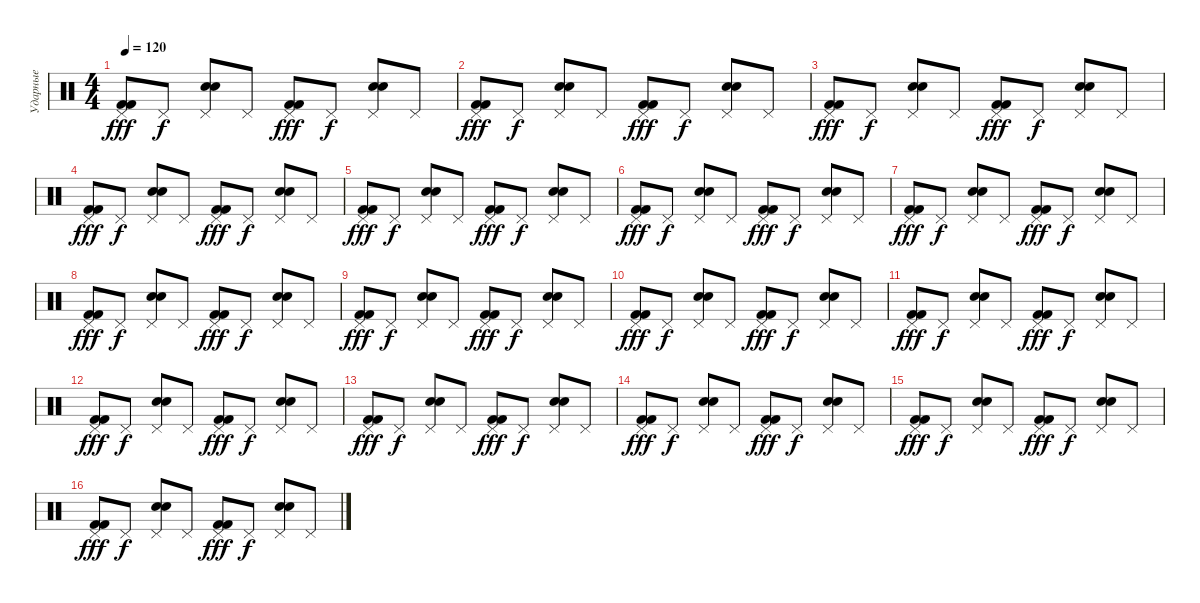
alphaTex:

\track ("Ударные" "Ударные") {instrument percussion}
\staff {score}
\articulation defaults
\ts (4 4)
\tempo 120
\clef neutral
\ks c
("Kick (hit) 2" "Kick (hit) 2" "Pedal Hi-Hat (hit)").8{dy fff} "Pedal Hi-Hat (hit)".8{dy f} ("Electric Snare (hit)" "Electric Snare (hit)" "Pedal Hi-Hat (hit)").8 "Pedal Hi-Hat (hit)".8 ("Kick (hit) 2" "Kick (hit) 2" "Pedal Hi-Hat (hit)").8{dy fff} "Pedal Hi-Hat (hit)".8{dy f} ("Electric Snare (hit)" "Electric Snare (hit)" "Pedal Hi-Hat (hit)").8 "Pedal Hi-Hat (hit)".8 |
("Kick (hit) 2" "Kick (hit) 2" "Pedal Hi-Hat (hit)").8{dy fff} "Pedal Hi-Hat (hit)".8{dy f} ("Electric Snare (hit)" "Electric Snare (hit)" "Pedal Hi-Hat (hit)").8 "Pedal Hi-Hat (hit)".8 ("Kick (hit) 2" "Kick (hit) 2" "Pedal Hi-Hat (hit)").8{dy fff} "Pedal Hi-Hat (hit)".8{dy f} ("Electric Snare (hit)" "Electric Snare (hit)" "Pedal Hi-Hat (hit)").8 "Pedal Hi-Hat (hit)".8 |
("Kick (hit) 2" "Kick (hit) 2" "Pedal Hi-Hat (hit)").8{dy fff} "Pedal Hi-Hat (hit)".8{dy f} ("Electric Snare (hit)" "Electric Snare (hit)" "Pedal Hi-Hat (hit)").8 "Pedal Hi-Hat (hit)".8 ("Kick (hit) 2" "Kick (hit) 2" "Pedal Hi-Hat (hit)").8{dy fff} "Pedal Hi-Hat (hit)".8{dy f} ("Electric Snare (hit)" "Electric Snare (hit)" "Pedal Hi-Hat (hit)").8 "Pedal Hi-Hat (hit)".8 |
("Kick (hit) 2" "Kick (hit) 2" "Pedal Hi-Hat (hit)").8{dy fff} "Pedal Hi-Hat (hit)".8{dy f} ("Electric Snare (hit)" "Electric Snare (hit)" "Pedal Hi-Hat (hit)").8 "Pedal Hi-Hat (hit)".8 ("Kick (hit) 2" "Kick (hit) 2" "Pedal Hi-Hat (hit)").8{dy fff} "Pedal Hi-Hat (hit)".8{dy f} ("Electric Snare (hit)" "Electric Snare (hit)" "Pedal Hi-Hat (hit)").8 "Pedal Hi-Hat (hit)".8 |
("Kick (hit) 2" "Kick (hit) 2" "Pedal Hi-Hat (hit)").8{dy fff} "Pedal Hi-Hat (hit)".8{dy f} ("Electric Snare (hit)" "Electric Snare (hit)" "Pedal Hi-Hat (hit)").8 "Pedal Hi-Hat (hit)".8 ("Kick (hit) 2" "Kick (hit) 2" "Pedal Hi-Hat (hit)").8{dy fff} "Pedal Hi-Hat (hit)".8{dy f} ("Electric Snare (hit)" "Electric Snare (hit)" "Pedal Hi-Hat (hit)").8 "Pedal Hi-Hat (hit)".8 |
("Kick (hit) 2" "Kick (hit) 2" "Pedal Hi-Hat (hit)").8{dy fff} "Pedal Hi-Hat (hit)".8{dy f} ("Electric Snare (hit)" "Electric Snare (hit)" "Pedal Hi-Hat (hit)").8 "Pedal Hi-Hat (hit)".8 ("Kick (hit) 2" "Kick (hit) 2" "Pedal Hi-Hat (hit)").8{dy fff} "Pedal Hi-Hat (hit)".8{dy f} ("Electric Snare (hit)" "Electric Snare (hit)" "Pedal Hi-Hat (hit)").8 "Pedal Hi-Hat (hit)".8 |
("Kick (hit) 2" "Kick (hit) 2" "Pedal Hi-Hat (hit)").8{dy fff} "Pedal Hi-Hat (hit)".8{dy f} ("Electric Snare (hit)" "Electric Snare (hit)" "Pedal Hi-Hat (hit)").8 "Pedal Hi-Hat (hit)".8 ("Kick (hit) 2" "Kick (hit) 2" "Pedal Hi-Hat (hit)").8{dy fff} "Pedal Hi-Hat (hit)".8{dy f} ("Electric Snare (hit)" "Electric Snare (hit)" "Pedal Hi-Hat (hit)").8 "Pedal Hi-Hat (hit)".8 |
("Kick (hit) 2" "Kick (hit) 2" "Pedal Hi-Hat (hit)").8{dy fff} "Pedal Hi-Hat (hit)".8{dy f} ("Electric Snare (hit)" "Electric Snare (hit)" "Pedal Hi-Hat (hit)").8 "Pedal Hi-Hat (hit)".8 ("Kick (hit) 2" "Kick (hit) 2" "Pedal Hi-Hat (hit)").8{dy fff} "Pedal Hi-Hat (hit)".8{dy f} ("Electric Snare (hit)" "Electric Snare (hit)" "Pedal Hi-Hat (hit)").8 "Pedal Hi-Hat (hit)".8 |
("Kick (hit) 2" "Kick (hit) 2" "Pedal Hi-Hat (hit)").8{dy fff} "Pedal Hi-Hat (hit)".8{dy f} ("Electric Snare (hit)" "Electric Snare (hit)" "Pedal Hi-Hat (hit)").8 "Pedal Hi-Hat (hit)".8 ("Kick (hit) 2" "Kick (hit) 2" "Pedal Hi-Hat (hit)").8{dy fff} "Pedal Hi-Hat (hit)".8{dy f} ("Electric Snare (hit)" "Electric Snare (hit)" "Pedal Hi-Hat (hit)").8 "Pedal Hi-Hat (hit)".8 |
("Kick (hit) 2" "Kick (hit) 2" "Pedal Hi-Hat (hit)").8{dy fff} "Pedal Hi-Hat (hit)".8{dy f} ("Electric Snare (hit)" "Electric Snare (hit)" "Pedal Hi-Hat (hit)").8 "Pedal Hi-Hat (hit)".8 ("Kick (hit) 2" "Kick (hit) 2" "Pedal Hi-Hat (hit)").8{dy fff} "Pedal Hi-Hat (hit)".8{dy f} ("Electric Snare (hit)" "Electric Snare (hit)" "Pedal Hi-Hat (hit)").8 "Pedal Hi-Hat (hit)".8 |
("Kick (hit) 2" "Kick (hit) 2" "Pedal Hi-Hat (hit)").8{dy fff} "Pedal Hi-Hat (hit)".8{dy f} ("Electric Snare (hit)" "Electric Snare (hit)" "Pedal Hi-Hat (hit)").8 "Pedal Hi-Hat (hit)".8 ("Kick (hit) 2" "Kick (hit) 2" "Pedal Hi-Hat (hit)").8{dy fff} "Pedal Hi-Hat (hit)".8{dy f} ("Electric Snare (hit)" "Electric Snare (hit)" "Pedal Hi-Hat (hit)").8 "Pedal Hi-Hat (hit)".8 |
("Kick (hit) 2" "Kick (hit) 2" "Pedal Hi-Hat (hit)").8{dy fff} "Pedal Hi-Hat (hit)".8{dy f} ("Electric Snare (hit)" "Electric Snare (hit)" "Pedal Hi-Hat (hit)").8 "Pedal Hi-Hat (hit)".8 ("Kick (hit) 2" "Kick (hit) 2" "Pedal Hi-Hat (hit)").8{dy fff} "Pedal Hi-Hat (hit)".8{dy f} ("Electric Snare (hit)" "Electric Snare (hit)" "Pedal Hi-Hat (hit)").8 "Pedal Hi-Hat (hit)".8 |
("Kick (hit) 2" "Kick (hit) 2" "Pedal Hi-Hat (hit)").8{dy fff} "Pedal Hi-Hat (hit)".8{dy f} ("Electric Snare (hit)" "Electric Snare (hit)" "Pedal Hi-Hat (hit)").8 "Pedal Hi-Hat (hit)".8 ("Kick (hit) 2" "Kick (hit) 2" "Pedal Hi-Hat (hit)").8{dy fff} "Pedal Hi-Hat (hit)".8{dy f} ("Electric Snare (hit)" "Electric Snare (hit)" "Pedal Hi-Hat (hit)").8 "Pedal Hi-Hat (hit)".8 |
("Kick (hit) 2" "Kick (hit) 2" "Pedal Hi-Hat (hit)").8{dy fff} "Pedal Hi-Hat (hit)".8{dy f} ("Electric Snare (hit)" "Electric Snare (hit)" "Pedal Hi-Hat (hit)").8 "Pedal Hi-Hat (hit)".8 ("Kick (hit) 2" "Kick (hit) 2" "Pedal Hi-Hat (hit)").8{dy fff} "Pedal Hi-Hat (hit)".8{dy f} ("Electric Snare (hit)" "Electric Snare (hit)" "Pedal Hi-Hat (hit)").8 "Pedal Hi-Hat (hit)".8 |
("Kick (hit) 2" "Kick (hit) 2" "Pedal Hi-Hat (hit)").8{dy fff} "Pedal Hi-Hat (hit)".8{dy f} ("Electric Snare (hit)" "Electric Snare (hit)" "Pedal Hi-Hat (hit)").8 "Pedal Hi-Hat (hit)".8 ("Kick (hit) 2" "Kick (hit) 2" "Pedal Hi-Hat (hit)").8{dy fff} "Pedal Hi-Hat (hit)".8{dy f} ("Electric Snare (hit)" "Electric Snare (hit)" "Pedal Hi-Hat (hit)").8 "Pedal Hi-Hat (hit)".8 |
("Kick (hit) 2" "Kick (hit) 2" "Pedal Hi-Hat (hit)").8{dy fff} "Pedal Hi-Hat (hit)".8{dy f} ("Electric Snare (hit)" "Electric Snare (hit)" "Pedal Hi-Hat (hit)").8 "Pedal Hi-Hat (hit)".8 ("Kick (hit) 2" "Kick (hit) 2" "Pedal Hi-Hat (hit)").8{dy fff} "Pedal Hi-Hat (hit)".8{dy f} ("Electric Snare (hit)" "Electric Snare (hit)" "Pedal Hi-Hat (hit)").8 "Pedal Hi-Hat (hit)".8
